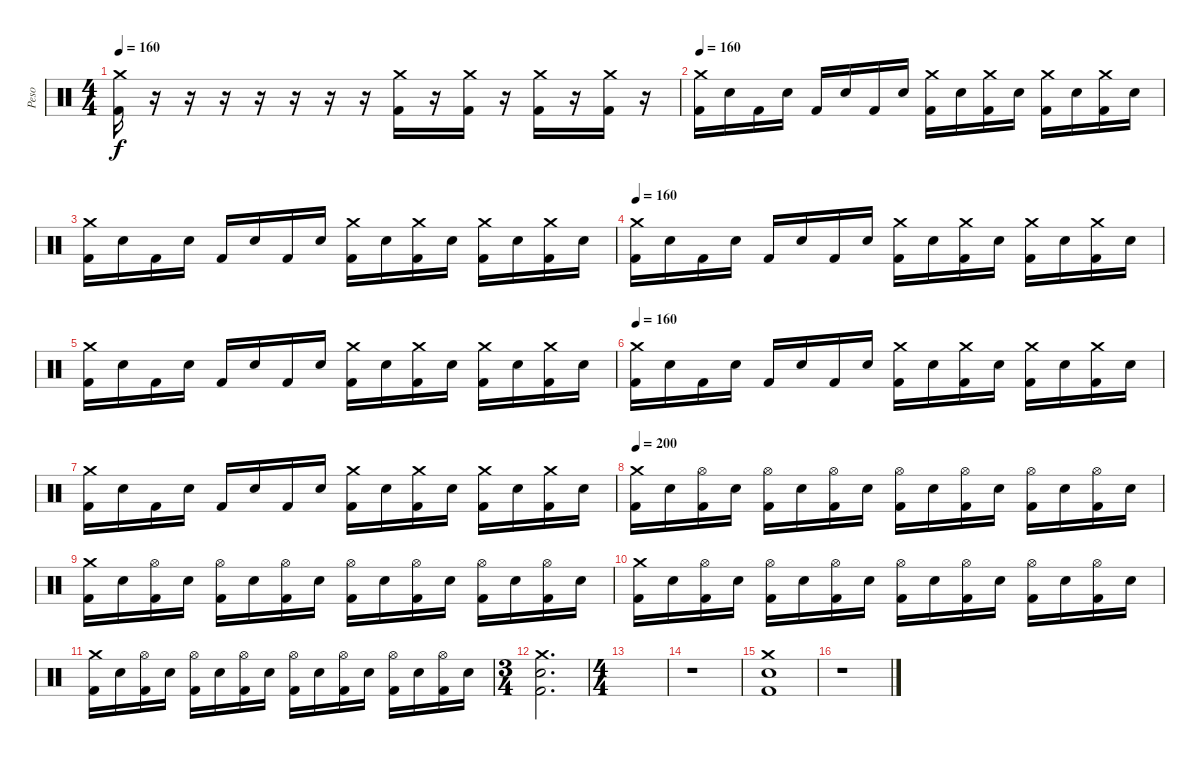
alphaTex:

\track ("Peso" "Peso") {instrument percussion}
\staff {score}
\articulation defaults
\ts (4 4)
\tempo 160
\clef neutral
\ks c
("Crash medium (hit)" "Kick (hit) 2").16{dy f} r.16 r.16 r.16 r.16 r.16 r.16 r.16 ("Crash medium (hit)" "Kick (hit) 2").16 r.16 ("Crash medium (hit)" "Kick (hit) 2").16 r.16 ("Crash medium (hit)" "Kick (hit) 2").16 r.16 ("Crash medium (hit)" "Kick (hit) 2").16 r.16 |
\tempo 160
("Crash medium (hit)" "Kick (hit) 2").16 "Electric Snare (hit)".16 "Kick (hit) 2".16 "Electric Snare (hit)".16 "Kick (hit) 2".16 "Electric Snare (hit)".16 "Kick (hit) 2".16 "Electric Snare (hit)".16 ("Crash medium (hit)" "Kick (hit) 2").16 "Electric Snare (hit)".16 ("Crash medium (hit)" "Kick (hit) 2").16 "Electric Snare (hit)".16 ("Crash medium (hit)" "Kick (hit) 2").16 "Electric Snare (hit)".16 ("Crash medium (hit)" "Kick (hit) 2").16 "Electric Snare (hit)".16 |
("Crash medium (hit)" "Kick (hit) 2").16 "Electric Snare (hit)".16 "Kick (hit) 2".16 "Electric Snare (hit)".16 "Kick (hit) 2".16 "Electric Snare (hit)".16 "Kick (hit) 2".16 "Electric Snare (hit)".16 ("Crash medium (hit)" "Kick (hit) 2").16 "Electric Snare (hit)".16 ("Crash medium (hit)" "Kick (hit) 2").16 "Electric Snare (hit)".16 ("Crash medium (hit)" "Kick (hit) 2").16 "Electric Snare (hit)".16 ("Crash medium (hit)" "Kick (hit) 2").16 "Electric Snare (hit)".16 |
\tempo 160
("Crash medium (hit)" "Kick (hit) 2").16 "Electric Snare (hit)".16 "Kick (hit) 2".16 "Electric Snare (hit)".16 "Kick (hit) 2".16 "Electric Snare (hit)".16 "Kick (hit) 2".16 "Electric Snare (hit)".16 ("Crash medium (hit)" "Kick (hit) 2").16 "Electric Snare (hit)".16 ("Crash medium (hit)" "Kick (hit) 2").16 "Electric Snare (hit)".16 ("Crash medium (hit)" "Kick (hit) 2").16 "Electric Snare (hit)".16 ("Crash medium (hit)" "Kick (hit) 2").16 "Electric Snare (hit)".16 |
("Crash medium (hit)" "Kick (hit) 2").16 "Electric Snare (hit)".16 "Kick (hit) 2".16 "Electric Snare (hit)".16 "Kick (hit) 2".16 "Electric Snare (hit)".16 "Kick (hit) 2".16 "Electric Snare (hit)".16 ("Crash medium (hit)" "Kick (hit) 2").16 "Electric Snare (hit)".16 ("Crash medium (hit)" "Kick (hit) 2").16 "Electric Snare (hit)".16 ("Crash medium (hit)" "Kick (hit) 2").16 "Electric Snare (hit)".16 ("Crash medium (hit)" "Kick (hit) 2").16 "Electric Snare (hit)".16 |
\tempo 160
("Crash medium (hit)" "Kick (hit) 2").16 "Electric Snare (hit)".16 "Kick (hit) 2".16 "Electric Snare (hit)".16 "Kick (hit) 2".16 "Electric Snare (hit)".16 "Kick (hit) 2".16 "Electric Snare (hit)".16 ("Crash medium (hit)" "Kick (hit) 2").16 "Electric Snare (hit)".16 ("Crash medium (hit)" "Kick (hit) 2").16 "Electric Snare (hit)".16 ("Crash medium (hit)" "Kick (hit) 2").16 "Electric Snare (hit)".16 ("Crash medium (hit)" "Kick (hit) 2").16 "Electric Snare (hit)".16 |
("Crash medium (hit)" "Kick (hit) 2").16 "Electric Snare (hit)".16 "Kick (hit) 2".16 "Electric Snare (hit)".16 "Kick (hit) 2".16 "Electric Snare (hit)".16 "Kick (hit) 2".16 "Electric Snare (hit)".16 ("Crash medium (hit)" "Kick (hit) 2").16 "Electric Snare (hit)".16 ("Crash medium (hit)" "Kick (hit) 2").16 "Electric Snare (hit)".16 ("Crash medium (hit)" "Kick (hit) 2").16 "Electric Snare (hit)".16 ("Crash medium (hit)" "Kick (hit) 2").16 "Electric Snare (hit)".16 |
\tempo 200
("Crash medium (hit)" "Kick (hit) 2").16 "Electric Snare (hit)".16 ("Hi-Hat (open)" "Kick (hit) 2").16 "Electric Snare (hit)".16 ("Hi-Hat (open)" "Kick (hit) 2").16 "Electric Snare (hit)".16 ("Hi-Hat (open)" "Kick (hit) 2").16 "Electric Snare (hit)".16 ("Hi-Hat (open)" "Kick (hit) 2").16 "Electric Snare (hit)".16 ("Hi-Hat (open)" "Kick (hit) 2").16 "Electric Snare (hit)".16 ("Hi-Hat (open)" "Kick (hit) 2").16 "Electric Snare (hit)".16 ("Hi-Hat (open)" "Kick (hit) 2").16 "Electric Snare (hit)".16 |
("Crash medium (hit)" "Kick (hit) 2").16 "Electric Snare (hit)".16 ("Hi-Hat (open)" "Kick (hit) 2").16 "Electric Snare (hit)".16 ("Hi-Hat (open)" "Kick (hit) 2").16 "Electric Snare (hit)".16 ("Hi-Hat (open)" "Kick (hit) 2").16 "Electric Snare (hit)".16 ("Hi-Hat (open)" "Kick (hit) 2").16 "Electric Snare (hit)".16 ("Hi-Hat (open)" "Kick (hit) 2").16 "Electric Snare (hit)".16 ("Hi-Hat (open)" "Kick (hit) 2").16 "Electric Snare (hit)".16 ("Hi-Hat (open)" "Kick (hit) 2").16 "Electric Snare (hit)".16 |
("Crash medium (hit)" "Kick (hit) 2").16 "Electric Snare (hit)".16 ("Hi-Hat (open)" "Kick (hit) 2").16 "Electric Snare (hit)".16 ("Hi-Hat (open)" "Kick (hit) 2").16 "Electric Snare (hit)".16 ("Hi-Hat (open)" "Kick (hit) 2").16 "Electric Snare (hit)".16 ("Hi-Hat (open)" "Kick (hit) 2").16 "Electric Snare (hit)".16 ("Hi-Hat (open)" "Kick (hit) 2").16 "Electric Snare (hit)".16 ("Hi-Hat (open)" "Kick (hit) 2").16 "Electric Snare (hit)".16 ("Hi-Hat (open)" "Kick (hit) 2").16 "Electric Snare (hit)".16 |
("Crash medium (hit)" "Kick (hit) 2").16 "Electric Snare (hit)".16 ("Hi-Hat (open)" "Kick (hit) 2").16 "Electric Snare (hit)".16 ("Hi-Hat (open)" "Kick (hit) 2").16 "Electric Snare (hit)".16 ("Hi-Hat (open)" "Kick (hit) 2").16 "Electric Snare (hit)".16 ("Hi-Hat (open)" "Kick (hit) 2").16 "Electric Snare (hit)".16 ("Hi-Hat (open)" "Kick (hit) 2").16 "Electric Snare (hit)".16 ("Hi-Hat (open)" "Kick (hit) 2").16 "Electric Snare (hit)".16 ("Hi-Hat (open)" "Kick (hit) 2").16 "Electric Snare (hit)".16 |
\ts (3 4)
("Crash medium (hit)" "Electric Snare (hit)" "Kick (hit) 2").2{d} |
\ts (4 4)
|
r.1 |
("Crash medium (hit)" "Electric Snare (hit)" "Kick (hit) 2").1 |
r.1
